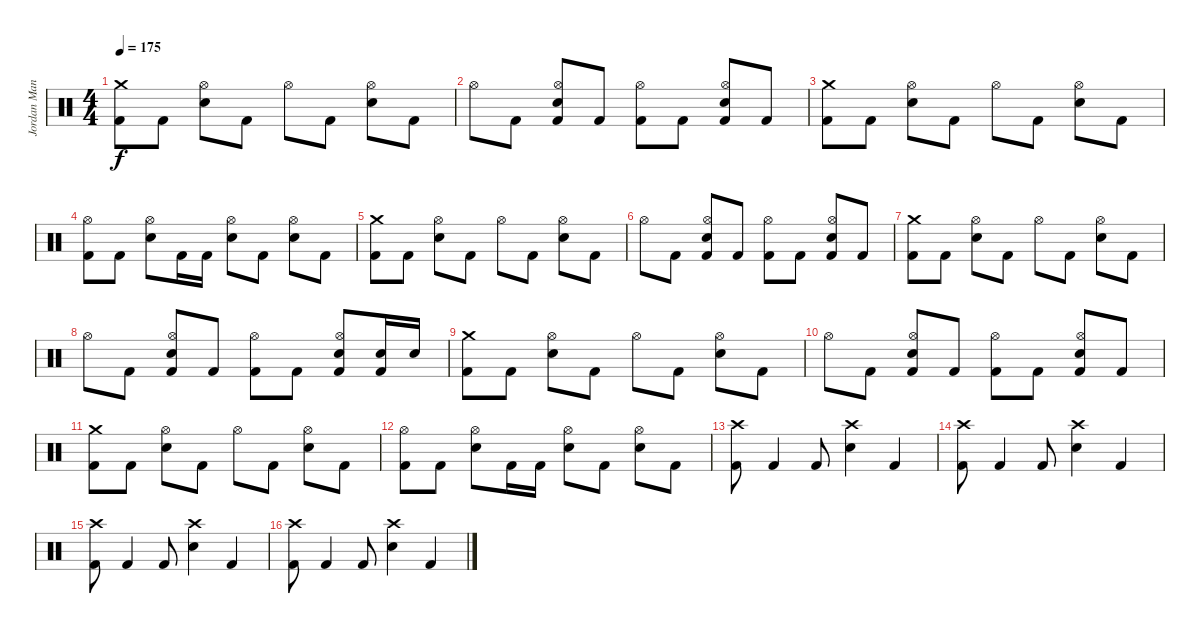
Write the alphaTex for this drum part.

\track ("Jordan Mancino" "Jordan Man") {instrument percussion}
\staff {score}
\articulation defaults
\ts (4 4)
\tempo 175
\clef neutral
\ks c
("Crash medium (hit)" "Kick (hit) 2").8{dy f} "Kick (hit) 2".8 ("Hi-Hat (open)" "Electric Snare (hit)").8 "Kick (hit) 2".8 "Hi-Hat (open)".8 "Kick (hit) 2".8 ("Hi-Hat (open)" "Electric Snare (hit)").8 "Kick (hit) 2".8 |
"Hi-Hat (open)".8 "Kick (hit) 2".8 ("Hi-Hat (open)" "Electric Snare (hit)" "Kick (hit) 2").8 "Kick (hit) 2".8 ("Hi-Hat (open)" "Kick (hit) 2").8 "Kick (hit) 2".8 ("Hi-Hat (open)" "Electric Snare (hit)" "Kick (hit) 2").8 "Kick (hit) 2".8 |
("Crash medium (hit)" "Kick (hit) 2").8 "Kick (hit) 2".8 ("Hi-Hat (open)" "Electric Snare (hit)").8 "Kick (hit) 2".8 "Hi-Hat (open)".8 "Kick (hit) 2".8 ("Hi-Hat (open)" "Electric Snare (hit)").8 "Kick (hit) 2".8 |
("Hi-Hat (open)" "Kick (hit) 2").8 "Kick (hit) 2".8 ("Hi-Hat (open)" "Electric Snare (hit)").8 "Kick (hit) 2".16 "Kick (hit) 2".16 ("Hi-Hat (open)" "Electric Snare (hit)").8 "Kick (hit) 2".8 ("Hi-Hat (open)" "Electric Snare (hit)").8 "Kick (hit) 2".8 |
("Crash medium (hit)" "Kick (hit) 2").8 "Kick (hit) 2".8 ("Hi-Hat (open)" "Electric Snare (hit)").8 "Kick (hit) 2".8 "Hi-Hat (open)".8 "Kick (hit) 2".8 ("Hi-Hat (open)" "Electric Snare (hit)").8 "Kick (hit) 2".8 |
"Hi-Hat (open)".8 "Kick (hit) 2".8 ("Hi-Hat (open)" "Electric Snare (hit)" "Kick (hit) 2").8 "Kick (hit) 2".8 ("Hi-Hat (open)" "Kick (hit) 2").8 "Kick (hit) 2".8 ("Hi-Hat (open)" "Electric Snare (hit)" "Kick (hit) 2").8 "Kick (hit) 2".8 |
("Crash medium (hit)" "Kick (hit) 2").8 "Kick (hit) 2".8 ("Hi-Hat (open)" "Electric Snare (hit)").8 "Kick (hit) 2".8 "Hi-Hat (open)".8 "Kick (hit) 2".8 ("Hi-Hat (open)" "Electric Snare (hit)").8 "Kick (hit) 2".8 |
"Hi-Hat (open)".8 "Kick (hit) 2".8 ("Hi-Hat (open)" "Electric Snare (hit)" "Kick (hit) 2").8 "Kick (hit) 2".8 ("Hi-Hat (open)" "Kick (hit) 2").8 "Kick (hit) 2".8 ("Hi-Hat (open)" "Electric Snare (hit)" "Kick (hit) 2").8 ("Electric Snare (hit)" "Kick (hit) 2").16 "Electric Snare (hit)".16 |
("Crash medium (hit)" "Kick (hit) 2").8 "Kick (hit) 2".8 ("Hi-Hat (open)" "Electric Snare (hit)").8 "Kick (hit) 2".8 "Hi-Hat (open)".8 "Kick (hit) 2".8 ("Hi-Hat (open)" "Electric Snare (hit)").8 "Kick (hit) 2".8 |
"Hi-Hat (open)".8 "Kick (hit) 2".8 ("Hi-Hat (open)" "Electric Snare (hit)" "Kick (hit) 2").8 "Kick (hit) 2".8 ("Hi-Hat (open)" "Kick (hit) 2").8 "Kick (hit) 2".8 ("Hi-Hat (open)" "Electric Snare (hit)" "Kick (hit) 2").8 "Kick (hit) 2".8 |
("Crash medium (hit)" "Kick (hit) 2").8 "Kick (hit) 2".8 ("Hi-Hat (open)" "Electric Snare (hit)").8 "Kick (hit) 2".8 "Hi-Hat (open)".8 "Kick (hit) 2".8 ("Hi-Hat (open)" "Electric Snare (hit)").8 "Kick (hit) 2".8 |
("Hi-Hat (open)" "Kick (hit) 2").8 "Kick (hit) 2".8 ("Hi-Hat (open)" "Electric Snare (hit)").8 "Kick (hit) 2".16 "Kick (hit) 2".16 ("Hi-Hat (open)" "Electric Snare (hit)").8 "Kick (hit) 2".8 ("Hi-Hat (open)" "Electric Snare (hit)").8 "Kick (hit) 2".8 |
("Crash high (hit)" "Kick (hit) 2").8 "Kick (hit) 2".4 "Kick (hit) 2".8 ("Crash high (hit)" "Electric Snare (hit)").4 "Kick (hit) 2".4 |
("Crash high (hit)" "Kick (hit) 2").8 "Kick (hit) 2".4 "Kick (hit) 2".8 ("Crash high (hit)" "Electric Snare (hit)").4 "Kick (hit) 2".4 |
("Crash high (hit)" "Kick (hit) 2").8 "Kick (hit) 2".4 "Kick (hit) 2".8 ("Crash high (hit)" "Electric Snare (hit)").4 "Kick (hit) 2".4 |
("Crash high (hit)" "Kick (hit) 2").8 "Kick (hit) 2".4 "Kick (hit) 2".8 ("Crash high (hit)" "Electric Snare (hit)").4 "Kick (hit) 2".4
